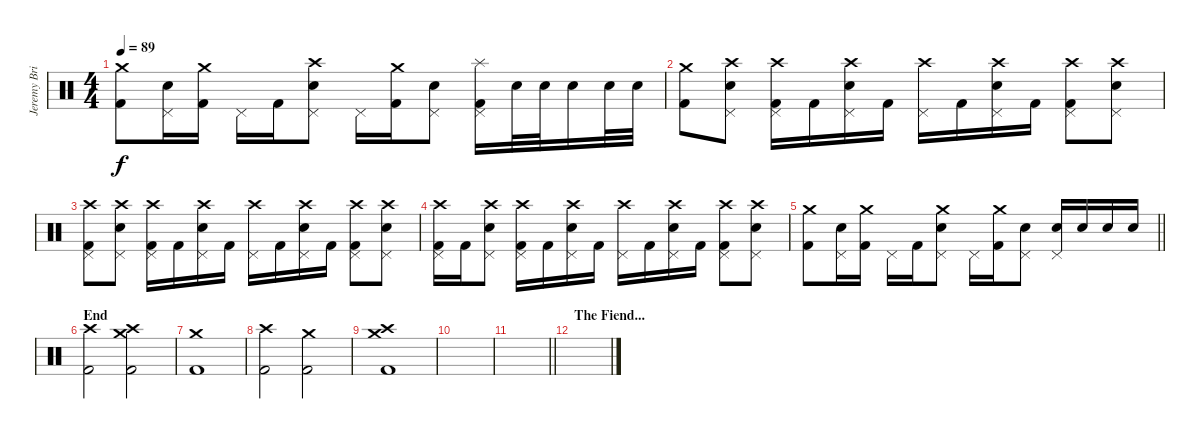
\track ("Jeremy Brian [Drums]" "Jeremy Bri") {instrument percussion}
\staff {score}
\articulation defaults
\ts (4 4)
\tempo 89
\clef neutral
\ks c
("Crash medium (hit)" "Kick (hit) 2").8{dy f} ("Pedal Hi-Hat (hit)" "Electric Snare (hit)").16 ("Crash medium (hit)" "Kick (hit) 2").16 "Pedal Hi-Hat (hit)".16 "Kick (hit) 2".16 ("Crash high (hit)" "Pedal Hi-Hat (hit)" "Electric Snare (hit)").8 "Pedal Hi-Hat (hit)".16 ("Crash medium (hit)" "Kick (hit) 2").16 ("Pedal Hi-Hat (hit)" "Electric Snare (hit)").8 ("Splash (hit)" "Pedal Hi-Hat (hit)" "Kick (hit) 2").16 "Electric Snare (hit)".32 "Electric Snare (hit)".32 "Electric Snare (hit)".16 "Electric Snare (hit)".32 "Electric Snare (hit)".32 |
("Crash medium (hit)" "Kick (hit) 2").8 ("Crash high (hit)" "Pedal Hi-Hat (hit)" "Electric Snare (hit)").8 ("Crash high (hit)" "Pedal Hi-Hat (hit)" "Kick (hit) 2").16 "Kick (hit) 2".16 ("Crash high (hit)" "Pedal Hi-Hat (hit)" "Electric Snare (hit)").16 "Kick (hit) 2".16 ("Crash high (hit)" "Pedal Hi-Hat (hit)").16 "Kick (hit) 2".16 ("Crash high (hit)" "Pedal Hi-Hat (hit)" "Electric Snare (hit)").16 "Kick (hit) 2".16 ("Crash high (hit)" "Pedal Hi-Hat (hit)" "Kick (hit) 2").8 ("Crash high (hit)" "Pedal Hi-Hat (hit)" "Electric Snare (hit)").8 |
("Crash high (hit)" "Pedal Hi-Hat (hit)" "Kick (hit) 2").8 ("Crash high (hit)" "Pedal Hi-Hat (hit)" "Electric Snare (hit)").8 ("Crash high (hit)" "Pedal Hi-Hat (hit)" "Kick (hit) 2").16 "Kick (hit) 2".16 ("Crash high (hit)" "Pedal Hi-Hat (hit)" "Electric Snare (hit)").16 "Kick (hit) 2".16 ("Crash high (hit)" "Pedal Hi-Hat (hit)").16 "Kick (hit) 2".16 ("Crash high (hit)" "Pedal Hi-Hat (hit)" "Electric Snare (hit)").16 "Kick (hit) 2".16 ("Crash high (hit)" "Pedal Hi-Hat (hit)" "Kick (hit) 2").8 ("Crash high (hit)" "Pedal Hi-Hat (hit)" "Electric Snare (hit)").8 |
("Crash high (hit)" "Pedal Hi-Hat (hit)" "Kick (hit) 2").16 "Kick (hit) 2".16 ("Crash high (hit)" "Pedal Hi-Hat (hit)" "Electric Snare (hit)").8 ("Crash high (hit)" "Pedal Hi-Hat (hit)" "Kick (hit) 2").16 "Kick (hit) 2".16 ("Crash high (hit)" "Pedal Hi-Hat (hit)" "Electric Snare (hit)").16 "Kick (hit) 2".16 ("Crash high (hit)" "Pedal Hi-Hat (hit)").16 "Kick (hit) 2".16 ("Crash high (hit)" "Pedal Hi-Hat (hit)" "Electric Snare (hit)").16 "Kick (hit) 2".16 ("Crash high (hit)" "Pedal Hi-Hat (hit)" "Kick (hit) 2").8 ("Crash high (hit)" "Pedal Hi-Hat (hit)" "Electric Snare (hit)").8 |
\barLineRight lightlight
("Crash medium (hit)" "Kick (hit) 2").8 ("Pedal Hi-Hat (hit)" "Electric Snare (hit)").16 ("Crash medium (hit)" "Kick (hit) 2").16 "Pedal Hi-Hat (hit)".16 "Kick (hit) 2".16 ("Crash medium (hit)" "Pedal Hi-Hat (hit)" "Electric Snare (hit)").8 "Pedal Hi-Hat (hit)".16 ("Crash medium (hit)" "Kick (hit) 2").16 ("Pedal Hi-Hat (hit)" "Electric Snare (hit)").8 ("Pedal Hi-Hat (hit)" "Electric Snare (hit)").16 "Electric Snare (hit)".16 "Electric Snare (hit)".16 "Electric Snare (hit)".16 |
\section ("" "End")
("Crash high (hit)" "Kick (hit) 2").2 ("Crash high (hit)" "Crash medium (hit)" "Kick (hit) 2").2 |
("Crash medium (hit)" "Kick (hit) 2").1 |
("Crash high (hit)" "Kick (hit) 2").2 ("Crash medium (hit)" "Kick (hit) 2").2 |
("Crash high (hit)" "Crash medium (hit)" "Kick (hit) 2").1 |
|
\barLineRight lightlight
|
\section ("" "The Fiend...")
